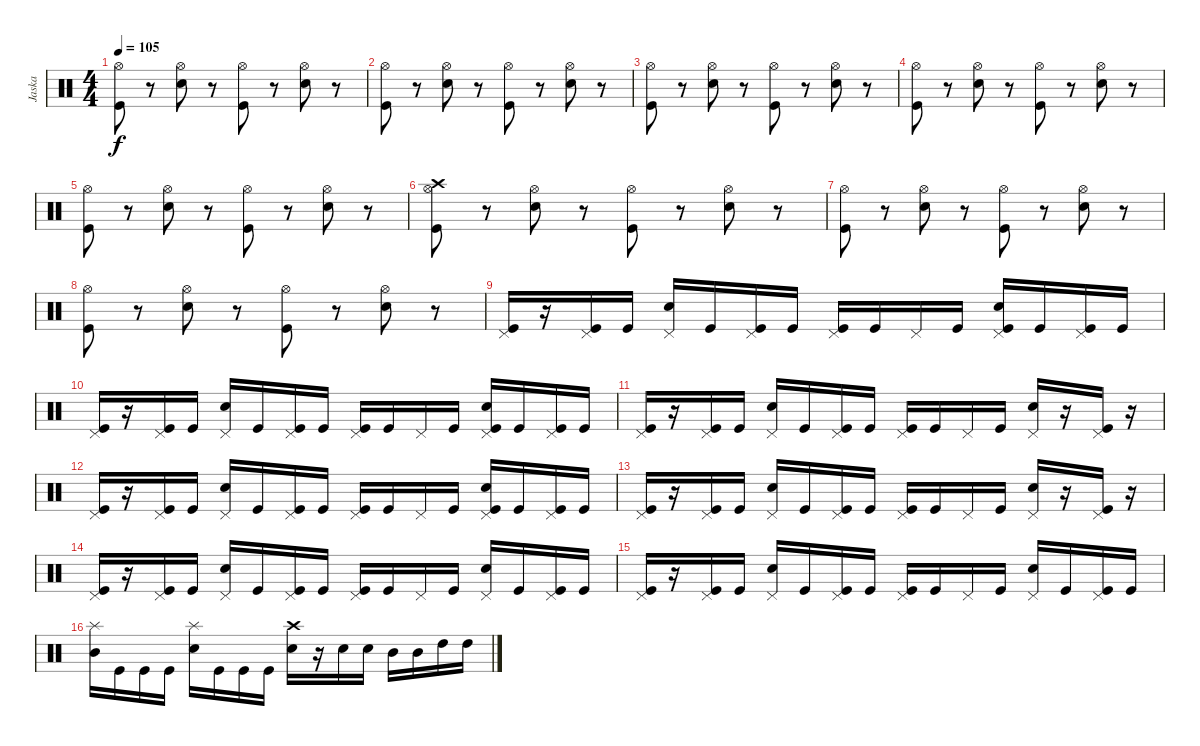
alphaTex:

\track ("Jaska" "Jaska") {instrument percussion}
\staff {score}
\articulation defaults
\ts (4 4)
\tempo 105
\clef neutral
\ks c
("Kick (hit)" "Hi-Hat (open)").8{dy f} r.8 ("Snare (hit) 2" "Hi-Hat (open)").8 r.8 ("Kick (hit)" "Hi-Hat (open)").8 r.8 ("Snare (hit) 2" "Hi-Hat (open)").8 r.8 |
("Kick (hit)" "Hi-Hat (open)").8 r.8 ("Snare (hit) 2" "Hi-Hat (open)").8 r.8 ("Kick (hit)" "Hi-Hat (open)").8 r.8 ("Snare (hit) 2" "Hi-Hat (open)").8 r.8 |
("Kick (hit)" "Hi-Hat (open)").8 r.8 ("Snare (hit) 2" "Hi-Hat (open)").8 r.8 ("Kick (hit)" "Hi-Hat (open)").8 r.8 ("Snare (hit) 2" "Hi-Hat (open)").8 r.8 |
("Kick (hit)" "Hi-Hat (open)").8 r.8 ("Snare (hit) 2" "Hi-Hat (open)").8 r.8 ("Kick (hit)" "Hi-Hat (open)").8 r.8 ("Snare (hit) 2" "Hi-Hat (open)").8 r.8 |
("Kick (hit)" "Hi-Hat (open)").8 r.8 ("Snare (hit) 2" "Hi-Hat (open)").8 r.8 ("Kick (hit)" "Hi-Hat (open)").8 r.8 ("Snare (hit) 2" "Hi-Hat (open)").8 r.8 |
("Kick (hit)" "Hi-Hat (open)" "Crash high (hit)").8 r.8 ("Snare (hit) 2" "Hi-Hat (open)").8 r.8 ("Kick (hit)" "Hi-Hat (open)").8 r.8 ("Snare (hit) 2" "Hi-Hat (open)").8 r.8 |
("Kick (hit)" "Hi-Hat (open)").8 r.8 ("Snare (hit) 2" "Hi-Hat (open)").8 r.8 ("Kick (hit)" "Hi-Hat (open)").8 r.8 ("Snare (hit) 2" "Hi-Hat (open)").8 r.8 |
("Kick (hit)" "Hi-Hat (open)").8 r.8 ("Snare (hit) 2" "Hi-Hat (open)").8 r.8 ("Kick (hit)" "Hi-Hat (open)").8 r.8 ("Snare (hit) 2" "Hi-Hat (open)").8 r.8 |
("Kick (hit)" "Pedal Hi-Hat (hit)").16 r.16 ("Kick (hit)" "Pedal Hi-Hat (hit)").16 "Kick (hit)".16 ("Snare (hit) 2" "Pedal Hi-Hat (hit)").16 "Kick (hit)".16 ("Kick (hit)" "Pedal Hi-Hat (hit)").16 "Kick (hit)".16 ("Kick (hit)" "Pedal Hi-Hat (hit)").16 "Kick (hit)".16 "Pedal Hi-Hat (hit)".16 "Kick (hit)".16 ("Kick (hit)" "Snare (hit) 2" "Pedal Hi-Hat (hit)").16 "Kick (hit)".16 ("Kick (hit)" "Pedal Hi-Hat (hit)").16 "Kick (hit)".16 |
("Kick (hit)" "Pedal Hi-Hat (hit)").16 r.16 ("Kick (hit)" "Pedal Hi-Hat (hit)").16 "Kick (hit)".16 ("Snare (hit) 2" "Pedal Hi-Hat (hit)").16 "Kick (hit)".16 ("Kick (hit)" "Pedal Hi-Hat (hit)").16 "Kick (hit)".16 ("Kick (hit)" "Pedal Hi-Hat (hit)").16 "Kick (hit)".16 "Pedal Hi-Hat (hit)".16 "Kick (hit)".16 ("Kick (hit)" "Snare (hit) 2" "Pedal Hi-Hat (hit)").16 "Kick (hit)".16 ("Kick (hit)" "Pedal Hi-Hat (hit)").16 "Kick (hit)".16 |
("Kick (hit)" "Pedal Hi-Hat (hit)").16 r.16 ("Kick (hit)" "Pedal Hi-Hat (hit)").16 "Kick (hit)".16 ("Snare (hit) 2" "Pedal Hi-Hat (hit)").16 "Kick (hit)".16 ("Kick (hit)" "Pedal Hi-Hat (hit)").16 "Kick (hit)".16 ("Kick (hit)" "Pedal Hi-Hat (hit)").16 "Kick (hit)".16 "Pedal Hi-Hat (hit)".16 "Kick (hit)".16 ("Snare (hit) 2" "Pedal Hi-Hat (hit)").16 r.16 ("Kick (hit)" "Pedal Hi-Hat (hit)").16 r.16 |
("Kick (hit)" "Pedal Hi-Hat (hit)").16 r.16 ("Kick (hit)" "Pedal Hi-Hat (hit)").16 "Kick (hit)".16 ("Snare (hit) 2" "Pedal Hi-Hat (hit)").16 "Kick (hit)".16 ("Kick (hit)" "Pedal Hi-Hat (hit)").16 "Kick (hit)".16 ("Kick (hit)" "Pedal Hi-Hat (hit)").16 "Kick (hit)".16 "Pedal Hi-Hat (hit)".16 "Kick (hit)".16 ("Kick (hit)" "Snare (hit) 2" "Pedal Hi-Hat (hit)").16 "Kick (hit)".16 ("Kick (hit)" "Pedal Hi-Hat (hit)").16 "Kick (hit)".16 |
("Kick (hit)" "Pedal Hi-Hat (hit)").16 r.16 ("Kick (hit)" "Pedal Hi-Hat (hit)").16 "Kick (hit)".16 ("Snare (hit) 2" "Pedal Hi-Hat (hit)").16 "Kick (hit)".16 ("Kick (hit)" "Pedal Hi-Hat (hit)").16 "Kick (hit)".16 ("Kick (hit)" "Pedal Hi-Hat (hit)").16 "Kick (hit)".16 "Pedal Hi-Hat (hit)".16 "Kick (hit)".16 ("Snare (hit) 2" "Pedal Hi-Hat (hit)").16 r.16 ("Kick (hit)" "Pedal Hi-Hat (hit)").16 r.16 |
("Kick (hit)" "Pedal Hi-Hat (hit)").16 r.16 ("Kick (hit)" "Pedal Hi-Hat (hit)").16 "Kick (hit)".16 ("Snare (hit) 2" "Pedal Hi-Hat (hit)").16 "Kick (hit)".16 ("Kick (hit)" "Pedal Hi-Hat (hit)").16 "Kick (hit)".16 ("Kick (hit)" "Pedal Hi-Hat (hit)").16 "Kick (hit)".16 "Pedal Hi-Hat (hit)".16 "Kick (hit)".16 ("Snare (hit) 2" "Pedal Hi-Hat (hit)").16 "Kick (hit)".16 ("Kick (hit)" "Pedal Hi-Hat (hit)").16 "Kick (hit)".16 |
("Kick (hit)" "Pedal Hi-Hat (hit)").16 r.16 ("Kick (hit)" "Pedal Hi-Hat (hit)").16 "Kick (hit)".16 ("Snare (hit) 2" "Pedal Hi-Hat (hit)").16 "Kick (hit)".16 ("Kick (hit)" "Pedal Hi-Hat (hit)").16 "Kick (hit)".16 ("Kick (hit)" "Pedal Hi-Hat (hit)").16 "Kick (hit)".16 "Pedal Hi-Hat (hit)".16 "Kick (hit)".16 ("Snare (hit) 2" "Pedal Hi-Hat (hit)").16 "Kick (hit)".16 ("Kick (hit)" "Pedal Hi-Hat (hit)").16 "Kick (hit)".16 |
("Mid Tom (hit)" "Splash (hit)").16 "Kick (hit)".16 "Kick (hit)".16 "Kick (hit)".16 ("Snare (hit) 2" "Splash (hit)").16 "Kick (hit)".16 "Kick (hit)".16 "Kick (hit)".16 ("Snare (hit) 2" "Crash high (hit)").16 r.16 "Snare (hit) 2".16 "Snare (hit) 2".16 "Mid Tom (hit)".16 "Mid Tom (hit)".16 "High Tom (hit)".16 "High Tom (hit)".16
